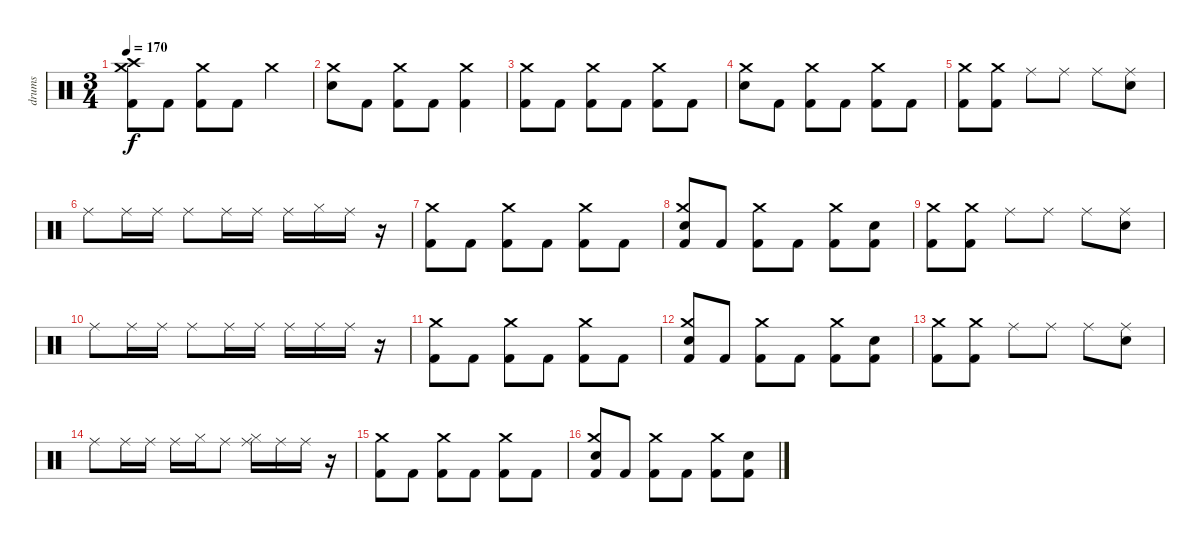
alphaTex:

\track ("drums" "drums") {instrument percussion}
\staff {score}
\articulation defaults
\ts (3 4)
\tempo 170
\clef neutral
\ks c
("Kick (hit) 2" "Crash medium (hit)" "Crash high (hit)").8{dy f} "Kick (hit) 2".8 ("Kick (hit) 2" "Crash medium (hit)").8 "Kick (hit) 2".8 "Crash medium (hit)".4 |
("Snare (hit) 2" "Crash medium (hit)").8 "Kick (hit) 2".8 ("Kick (hit) 2" "Crash medium (hit)").8 "Kick (hit) 2".8 ("Kick (hit) 2" "Crash medium (hit)").4 |
("Kick (hit) 2" "Crash medium (hit)").8 "Kick (hit) 2".8 ("Kick (hit) 2" "Crash medium (hit)").8 "Kick (hit) 2".8 ("Kick (hit) 2" "Crash medium (hit)").8 "Kick (hit) 2".8 |
("Snare (hit) 2" "Crash medium (hit)").8 "Kick (hit) 2".8 ("Kick (hit) 2" "Crash medium (hit)").8 "Kick (hit) 2".8 ("Kick (hit) 2" "Crash medium (hit)").8 "Kick (hit) 2".8 |
("Kick (hit) 2" "Crash medium (hit)").8 ("Kick (hit) 2" "Crash medium (hit)").8 "Ride (middle)".8 "Ride (middle)".8 "Ride (middle)".8 ("Snare (hit) 2" "Ride (middle)").8 |
"Ride (middle)".8 "Ride (middle)".16 "Ride (middle)".16 "Ride (middle)".8 "Ride (middle)".16 "Ride (middle)".16 "Ride (middle)".16 "Hi-Hat (closed)".16 "Ride (middle)".16 r.16 |
("Kick (hit) 2" "Crash medium (hit)").8 "Kick (hit) 2".8 ("Kick (hit) 2" "Crash medium (hit)").8 "Kick (hit) 2".8 ("Kick (hit) 2" "Crash medium (hit)").8 "Kick (hit) 2".8 |
("Kick (hit) 2" "Snare (hit) 2" "Crash medium (hit)").8 "Kick (hit) 2".8 ("Kick (hit) 2" "Crash medium (hit)").8 "Kick (hit) 2".8 ("Kick (hit) 2" "Crash medium (hit)").8 ("Kick (hit) 2" "Snare (hit) 2").8 |
("Kick (hit) 2" "Crash medium (hit)").8 ("Kick (hit) 2" "Crash medium (hit)").8 "Ride (middle)".8 "Ride (middle)".8 "Ride (middle)".8 ("Snare (hit) 2" "Ride (middle)").8 |
"Ride (middle)".8 "Ride (middle)".16 "Ride (middle)".16 "Ride (middle)".8 "Ride (middle)".16 "Ride (middle)".16 "Ride (middle)".16 "Ride (middle)".16 "Ride (middle)".16 r.16 |
("Kick (hit) 2" "Crash medium (hit)").8 "Kick (hit) 2".8 ("Kick (hit) 2" "Crash medium (hit)").8 "Kick (hit) 2".8 ("Kick (hit) 2" "Crash medium (hit)").8 "Kick (hit) 2".8 |
("Kick (hit) 2" "Snare (hit) 2" "Crash medium (hit)").8 "Kick (hit) 2".8 ("Kick (hit) 2" "Crash medium (hit)").8 "Kick (hit) 2".8 ("Kick (hit) 2" "Crash medium (hit)").8 ("Kick (hit) 2" "Snare (hit) 2").8 |
("Kick (hit) 2" "Crash medium (hit)").8 ("Kick (hit) 2" "Crash medium (hit)").8 "Ride (middle)".8 "Ride (middle)".8 "Ride (middle)".8 ("Snare (hit) 2" "Ride (middle)").8 |
"Ride (middle)".8 "Ride (middle)".16 "Ride (middle)".16 "Ride (middle)".16 "Hi-Hat (closed)".16 "Ride (middle)".8 ("Ride (middle)" "Hi-Hat (closed)").16 "Ride (middle)".16 "Ride (middle)".16 r.16 |
("Kick (hit) 2" "Crash medium (hit)").8 "Kick (hit) 2".8 ("Kick (hit) 2" "Crash medium (hit)").8 "Kick (hit) 2".8 ("Kick (hit) 2" "Crash medium (hit)").8 "Kick (hit) 2".8 |
("Kick (hit) 2" "Snare (hit) 2" "Crash medium (hit)").8 "Kick (hit) 2".8 ("Kick (hit) 2" "Crash medium (hit)").8 "Kick (hit) 2".8 ("Kick (hit) 2" "Crash medium (hit)").8 ("Kick (hit) 2" "Snare (hit) 2").8
